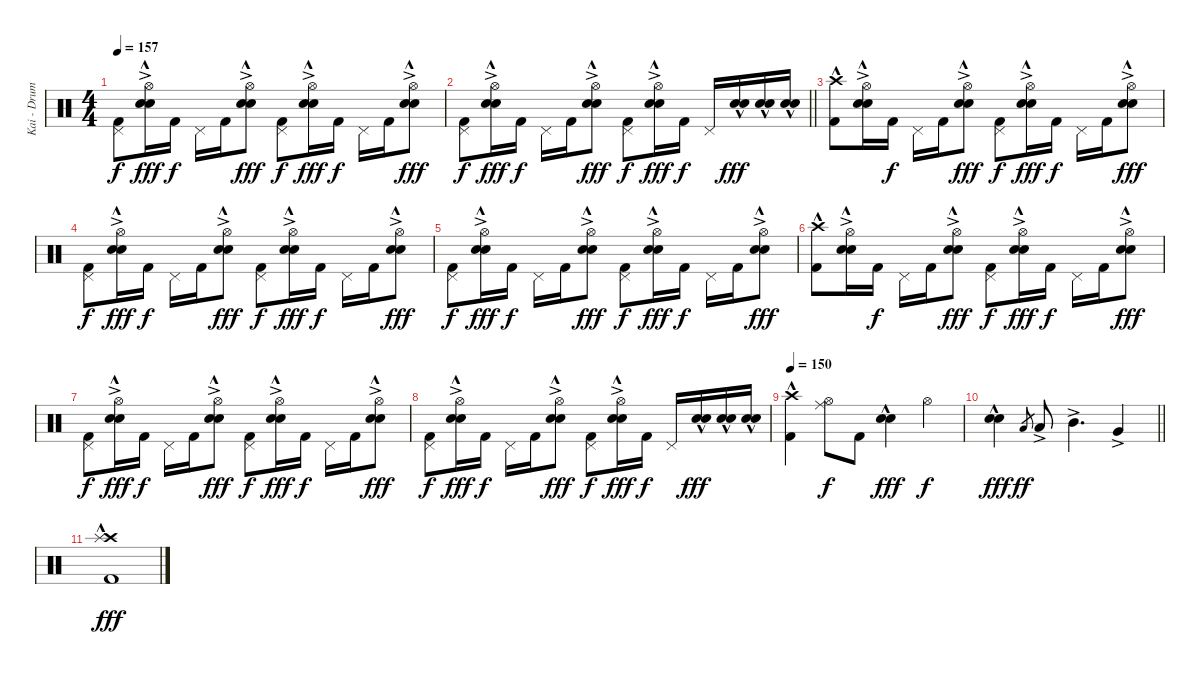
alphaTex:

\track ("Kai - Drums" "Kai - Drum") {instrument percussion}
\staff {score}
\articulation defaults
\ts (4 4)
\tempo 157
\clef neutral
\ks c
("Pedal Hi-Hat (hit)" "Kick (hit) 2").8{dy f} ("Hi-Hat (open)"{ac} "Electric Snare (hit)"{hac} "Snare (hit) 2").16{dy fff} "Kick (hit) 2".16{dy f} "Pedal Hi-Hat (hit)".16 "Kick (hit) 2".16 ("Hi-Hat (open)"{ac} "Electric Snare (hit)"{hac} "Snare (hit) 2").8{dy fff} ("Pedal Hi-Hat (hit)" "Kick (hit) 2").8{dy f} ("Hi-Hat (open)"{ac} "Electric Snare (hit)"{hac} "Snare (hit) 2").16{dy fff} "Kick (hit) 2".16{dy f} "Pedal Hi-Hat (hit)".16 "Kick (hit) 2".16 ("Hi-Hat (open)"{ac} "Electric Snare (hit)"{hac} "Snare (hit) 2").8{dy fff} |
\barLineRight lightlight
("Pedal Hi-Hat (hit)" "Kick (hit) 2").8{dy f} ("Hi-Hat (open)"{ac} "Electric Snare (hit)"{hac} "Snare (hit) 2").16{dy fff} "Kick (hit) 2".16{dy f} "Pedal Hi-Hat (hit)".16 "Kick (hit) 2".16 ("Hi-Hat (open)"{ac} "Electric Snare (hit)"{hac} "Snare (hit) 2").8{dy fff} ("Pedal Hi-Hat (hit)" "Kick (hit) 2").8{dy f} ("Hi-Hat (open)"{ac} "Electric Snare (hit)"{hac} "Snare (hit) 2").16{dy fff} "Kick (hit) 2".16{dy f} "Pedal Hi-Hat (hit)".16 ("Electric Snare (hit)"{hac} "Snare (hit) 2").16{dy fff} ("Electric Snare (hit)"{hac} "Snare (hit) 2").16 ("Electric Snare (hit)"{hac} "Snare (hit) 2").16 |
\section ("" "")
("Crash high (hit)"{hac} "Kick (hit) 2").8 ("Hi-Hat (open)"{ac} "Electric Snare (hit)"{hac} "Snare (hit) 2").16 "Kick (hit) 2".16{dy f} "Pedal Hi-Hat (hit)".16 "Kick (hit) 2".16 ("Hi-Hat (open)"{ac} "Electric Snare (hit)"{hac} "Snare (hit) 2").8{dy fff} ("Pedal Hi-Hat (hit)" "Kick (hit) 2").8{dy f} ("Hi-Hat (open)"{ac} "Electric Snare (hit)"{hac} "Snare (hit) 2").16{dy fff} "Kick (hit) 2".16{dy f} "Pedal Hi-Hat (hit)".16 "Kick (hit) 2".16 ("Hi-Hat (open)"{ac} "Electric Snare (hit)"{hac} "Snare (hit) 2").8{dy fff} |
("Pedal Hi-Hat (hit)" "Kick (hit) 2").8{dy f} ("Hi-Hat (open)"{ac} "Electric Snare (hit)"{hac} "Snare (hit) 2").16{dy fff} "Kick (hit) 2".16{dy f} "Pedal Hi-Hat (hit)".16 "Kick (hit) 2".16 ("Hi-Hat (open)"{ac} "Electric Snare (hit)"{hac} "Snare (hit) 2").8{dy fff} ("Pedal Hi-Hat (hit)" "Kick (hit) 2").8{dy f} ("Hi-Hat (open)"{ac} "Electric Snare (hit)"{hac} "Snare (hit) 2").16{dy fff} "Kick (hit) 2".16{dy f} "Pedal Hi-Hat (hit)".16 "Kick (hit) 2".16 ("Hi-Hat (open)"{ac} "Electric Snare (hit)"{hac} "Snare (hit) 2").8{dy fff} |
("Pedal Hi-Hat (hit)" "Kick (hit) 2").8{dy f} ("Hi-Hat (open)"{ac} "Electric Snare (hit)"{hac} "Snare (hit) 2").16{dy fff} "Kick (hit) 2".16{dy f} "Pedal Hi-Hat (hit)".16 "Kick (hit) 2".16 ("Hi-Hat (open)"{ac} "Electric Snare (hit)"{hac} "Snare (hit) 2").8{dy fff} ("Pedal Hi-Hat (hit)" "Kick (hit) 2").8{dy f} ("Hi-Hat (open)"{ac} "Electric Snare (hit)"{hac} "Snare (hit) 2").16{dy fff} "Kick (hit) 2".16{dy f} "Pedal Hi-Hat (hit)".16 "Kick (hit) 2".16 ("Hi-Hat (open)"{ac} "Electric Snare (hit)"{hac} "Snare (hit) 2").8{dy fff} |
("Crash high (hit)"{hac} "Kick (hit) 2").8 ("Hi-Hat (open)"{ac} "Electric Snare (hit)"{hac} "Snare (hit) 2").16 "Kick (hit) 2".16{dy f} "Pedal Hi-Hat (hit)".16 "Kick (hit) 2".16 ("Hi-Hat (open)"{ac} "Electric Snare (hit)"{hac} "Snare (hit) 2").8{dy fff} ("Pedal Hi-Hat (hit)" "Kick (hit) 2").8{dy f} ("Hi-Hat (open)"{ac} "Electric Snare (hit)"{hac} "Snare (hit) 2").16{dy fff} "Kick (hit) 2".16{dy f} "Pedal Hi-Hat (hit)".16 "Kick (hit) 2".16 ("Hi-Hat (open)"{ac} "Electric Snare (hit)"{hac} "Snare (hit) 2").8{dy fff} |
("Pedal Hi-Hat (hit)" "Kick (hit) 2").8{dy f} ("Hi-Hat (open)"{ac} "Electric Snare (hit)"{hac} "Snare (hit) 2").16{dy fff} "Kick (hit) 2".16{dy f} "Pedal Hi-Hat (hit)".16 "Kick (hit) 2".16 ("Hi-Hat (open)"{ac} "Electric Snare (hit)"{hac} "Snare (hit) 2").8{dy fff} ("Pedal Hi-Hat (hit)" "Kick (hit) 2").8{dy f} ("Hi-Hat (open)"{ac} "Electric Snare (hit)"{hac} "Snare (hit) 2").16{dy fff} "Kick (hit) 2".16{dy f} "Pedal Hi-Hat (hit)".16 "Kick (hit) 2".16 ("Hi-Hat (open)"{ac} "Electric Snare (hit)"{hac} "Snare (hit) 2").8{dy fff} |
("Pedal Hi-Hat (hit)" "Kick (hit) 2").8{dy f} ("Hi-Hat (open)"{ac} "Electric Snare (hit)"{hac} "Snare (hit) 2").16{dy fff} "Kick (hit) 2".16{dy f} "Pedal Hi-Hat (hit)".16 "Kick (hit) 2".16 ("Hi-Hat (open)"{ac} "Electric Snare (hit)"{hac} "Snare (hit) 2").8{dy fff} ("Pedal Hi-Hat (hit)" "Kick (hit) 2").8{dy f} ("Hi-Hat (open)"{ac} "Electric Snare (hit)"{hac} "Snare (hit) 2").16{dy fff} "Kick (hit) 2".16{dy f} "Pedal Hi-Hat (hit)".16 ("Electric Snare (hit)"{hac} "Snare (hit) 2").16{dy fff} ("Electric Snare (hit)"{hac} "Snare (hit) 2").16 ("Electric Snare (hit)"{hac} "Snare (hit) 2").16 |
\tempo 150
("Crash high (hit)"{hac} "Kick (hit) 2").4 ("Hi-Hat (open)" "Ride (middle)").8{dy f} "Kick (hit) 2".8 ("Electric Snare (hit)"{hac} "Snare (hit) 2").4{dy fff} "Hi-Hat (open)".4{dy f} |
\barLineRight lightlight
("Electric Snare (hit)"{hac} "Snare (hit) 2").4{dy fff} "Low Tom (hit)".8{gr dy ff} "Low Tom (hit)"{ac}.8 "Mid Tom (hit)"{ac}.4{d} "Very Low Tom (hit)"{ac}.4 |
\section ("" "")
("Crash high (hit)"{hac} "Splash (hit)"{hac} "Kick (hit) 2").1{dy fff}
